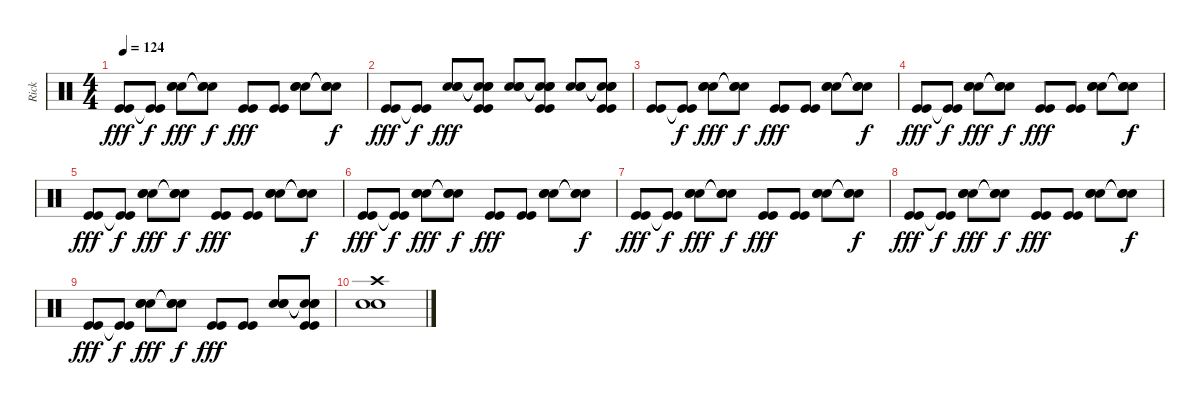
\track ("Rick" "Rick") {instrument percussion}
\staff {score}
\articulation defaults
\ts (4 4)
\tempo 124
\clef neutral
\ks c
("Kick (hit)" "Kick (hit)").8{dy fff} ("Kick (hit)"{t} "Kick (hit)"{t}).8{dy f} ("Snare (hit) 2" "Snare (hit) 2" "Snare (hit) 2").8{dy fff} ("Snare (hit)"{t} "Snare (hit)"{t} "Snare (hit)"{t}).8{dy f} ("Kick (hit)" "Kick (hit)").8{dy fff} ("Kick (hit)" "Kick (hit)").8 ("Snare (hit) 2" "Snare (hit) 2" "Snare (hit) 2").8 ("Snare (hit)"{t} "Snare (hit)"{t} "Snare (hit)"{t}).8{dy f} |
("Kick (hit)" "Kick (hit)").8{dy fff} ("Kick (hit)"{t} "Kick (hit)"{t}).8{dy f} ("Snare (hit) 2" "Snare (hit) 2" "Snare (hit) 2").8{dy fff} ("Snare (hit)"{t} "Snare (hit)"{t} "Snare (hit)"{t} "Kick (hit)" "Kick (hit)").8 ("Snare (hit) 2" "Snare (hit) 2" "Snare (hit) 2").8 ("Snare (hit)"{t} "Snare (hit)"{t} "Snare (hit)"{t} "Kick (hit)" "Kick (hit)").8 ("Snare (hit) 2" "Snare (hit) 2" "Snare (hit) 2").8 ("Snare (hit)"{t} "Snare (hit)"{t} "Snare (hit)"{t} "Kick (hit)" "Kick (hit)").8 |
("Kick (hit)" "Kick (hit)").8 ("Kick (hit)"{t} "Kick (hit)"{t}).8{dy f} ("Snare (hit) 2" "Snare (hit) 2" "Snare (hit) 2").8{dy fff} ("Snare (hit)"{t} "Snare (hit)"{t} "Snare (hit)"{t}).8{dy f} ("Kick (hit)" "Kick (hit)").8{dy fff} ("Kick (hit)" "Kick (hit)").8 ("Snare (hit) 2" "Snare (hit) 2" "Snare (hit) 2").8 ("Snare (hit)"{t} "Snare (hit)"{t} "Snare (hit)"{t}).8{dy f} |
("Kick (hit)" "Kick (hit)").8{dy fff} ("Kick (hit)"{t} "Kick (hit)"{t}).8{dy f} ("Snare (hit) 2" "Snare (hit) 2" "Snare (hit) 2").8{dy fff} ("Snare (hit)"{t} "Snare (hit)"{t} "Snare (hit)"{t}).8{dy f} ("Kick (hit)" "Kick (hit)").8{dy fff} ("Kick (hit)" "Kick (hit)").8 ("Snare (hit) 2" "Snare (hit) 2" "Snare (hit) 2").8 ("Snare (hit)"{t} "Snare (hit)"{t} "Snare (hit)"{t}).8{dy f} |
("Kick (hit)" "Kick (hit)").8{dy fff} ("Kick (hit)"{t} "Kick (hit)"{t}).8{dy f} ("Snare (hit) 2" "Snare (hit) 2" "Snare (hit) 2").8{dy fff} ("Snare (hit)"{t} "Snare (hit)"{t} "Snare (hit)"{t}).8{dy f} ("Kick (hit)" "Kick (hit)").8{dy fff} ("Kick (hit)" "Kick (hit)").8 ("Snare (hit) 2" "Snare (hit) 2" "Snare (hit) 2").8 ("Snare (hit)"{t} "Snare (hit)"{t} "Snare (hit)"{t}).8{dy f} |
("Kick (hit)" "Kick (hit)").8{dy fff} ("Kick (hit)"{t} "Kick (hit)"{t}).8{dy f} ("Snare (hit) 2" "Snare (hit) 2" "Snare (hit) 2").8{dy fff} ("Snare (hit)"{t} "Snare (hit)"{t} "Snare (hit)"{t}).8{dy f} ("Kick (hit)" "Kick (hit)").8{dy fff} ("Kick (hit)" "Kick (hit)").8 ("Snare (hit) 2" "Snare (hit) 2" "Snare (hit) 2").8 ("Snare (hit)"{t} "Snare (hit)"{t} "Snare (hit)"{t}).8{dy f} |
("Kick (hit)" "Kick (hit)").8{dy fff} ("Kick (hit)"{t} "Kick (hit)"{t}).8{dy f} ("Snare (hit) 2" "Snare (hit) 2" "Snare (hit) 2").8{dy fff} ("Snare (hit)"{t} "Snare (hit)"{t} "Snare (hit)"{t}).8{dy f} ("Kick (hit)" "Kick (hit)").8{dy fff} ("Kick (hit)" "Kick (hit)").8 ("Snare (hit) 2" "Snare (hit) 2" "Snare (hit) 2").8 ("Snare (hit)"{t} "Snare (hit)"{t} "Snare (hit)"{t}).8{dy f} |
("Kick (hit)" "Kick (hit)").8{dy fff} ("Kick (hit)"{t} "Kick (hit)"{t}).8{dy f} ("Snare (hit) 2" "Snare (hit) 2" "Snare (hit) 2").8{dy fff} ("Snare (hit)"{t} "Snare (hit)"{t} "Snare (hit)"{t}).8{dy f} ("Kick (hit)" "Kick (hit)").8{dy fff} ("Kick (hit)" "Kick (hit)").8 ("Snare (hit) 2" "Snare (hit) 2" "Snare (hit) 2").8 ("Snare (hit)"{t} "Snare (hit)"{t} "Snare (hit)"{t}).8{dy f} |
("Kick (hit)" "Kick (hit)").8{dy fff} ("Kick (hit)"{t} "Kick (hit)"{t}).8{dy f} ("Snare (hit) 2" "Snare (hit) 2" "Snare (hit) 2").8{dy fff} ("Snare (hit)"{t} "Snare (hit)"{t} "Snare (hit)"{t}).8{dy f} ("Kick (hit)" "Kick (hit)").8{dy fff} ("Kick (hit)" "Kick (hit)").8 ("Snare (hit) 2" "Snare (hit) 2" "Snare (hit) 2").8 ("Snare (hit)"{t} "Snare (hit)"{t} "Snare (hit)"{t} "Kick (hit)" "Kick (hit)").8 |
("Snare (hit) 2" "Snare (hit) 2" "Crash high (hit)").1
